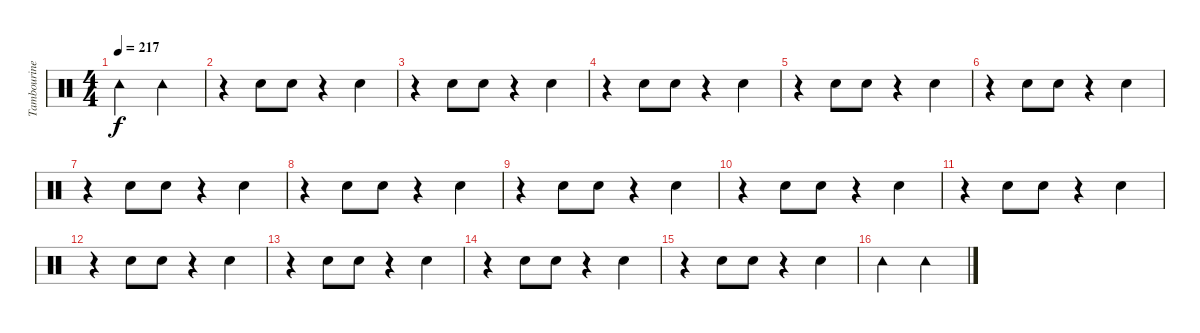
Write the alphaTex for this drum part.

\track ("Tambourine" "Tambourine") {instrument percussion}
\staff {score}
\articulation defaults
\ts (4 4)
\tempo 217
\clef neutral
\ks c "Tambourine (hit)".2{dy f} "Tambourine (hit)".2
|
r.4 "Hand Clap (hit)".8 "Hand Clap (hit)".8 r.4 "Hand Clap (hit)".4 |
r.4 "Hand Clap (hit)".8 "Hand Clap (hit)".8 r.4 "Hand Clap (hit)".4 |
r.4 "Hand Clap (hit)".8 "Hand Clap (hit)".8 r.4 "Hand Clap (hit)".4 |
r.4 "Hand Clap (hit)".8 "Hand Clap (hit)".8 r.4 "Hand Clap (hit)".4 |
r.4 "Hand Clap (hit)".8 "Hand Clap (hit)".8 r.4 "Hand Clap (hit)".4 |
r.4 "Hand Clap (hit)".8 "Hand Clap (hit)".8 r.4 "Hand Clap (hit)".4 |
r.4 "Hand Clap (hit)".8 "Hand Clap (hit)".8 r.4 "Hand Clap (hit)".4 |
r.4 "Hand Clap (hit)".8 "Hand Clap (hit)".8 r.4 "Hand Clap (hit)".4 |
r.4 "Hand Clap (hit)".8 "Hand Clap (hit)".8 r.4 "Hand Clap (hit)".4 |
r.4 "Hand Clap (hit)".8 "Hand Clap (hit)".8 r.4 "Hand Clap (hit)".4 |
r.4 "Hand Clap (hit)".8 "Hand Clap (hit)".8 r.4 "Hand Clap (hit)".4 |
r.4 "Hand Clap (hit)".8 "Hand Clap (hit)".8 r.4 "Hand Clap (hit)".4 |
r.4 "Hand Clap (hit)".8 "Hand Clap (hit)".8 r.4 "Hand Clap (hit)".4 |
r.4 "Hand Clap (hit)".8 "Hand Clap (hit)".8 r.4 "Hand Clap (hit)".4 |
"Tambourine (hit)".2 "Tambourine (hit)".2
